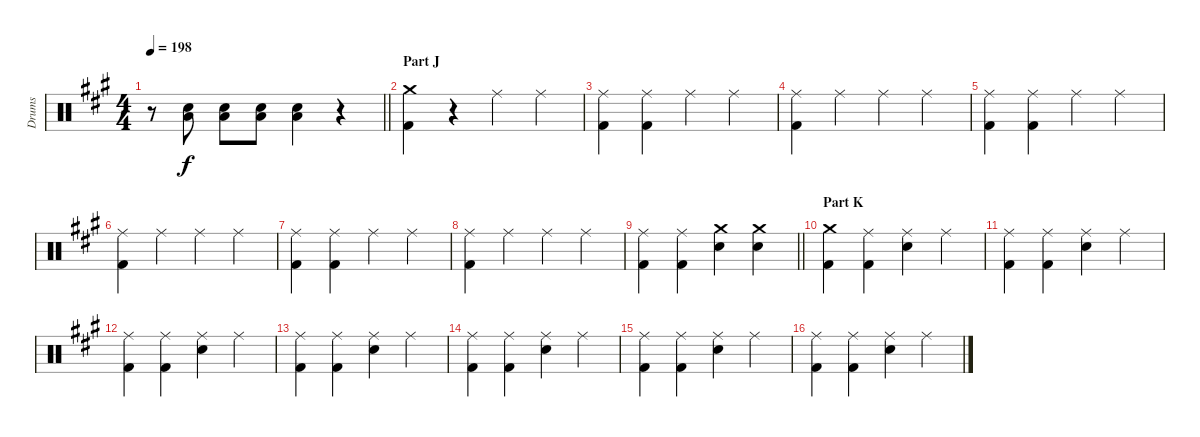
\track ("Drums" "Drums") {instrument percussion}
\staff {score}
\articulation defaults
\ts (4 4)
\tempo 198
\clef neutral
\barLineRight lightlight
\ks a
r.8{dy f} ("Electric Snare (hit)" "Low Floor Tom (hit)").8 ("Electric Snare (hit)" "Low Floor Tom (hit)").8 ("Electric Snare (hit)" "Low Floor Tom (hit)").8 ("Electric Snare (hit)" "Low Floor Tom (hit)").4 r.4 |
\section ("" "Part J")
("Crash medium (hit)" "Kick (hit) 2").4 r.4 "Ride (middle)".4 "Ride (middle)".4 |
("Ride (middle)" "Kick (hit) 2").4 ("Ride (middle)" "Kick (hit) 2").4 "Ride (middle)".4 "Ride (middle)".4 |
("Ride (middle)" "Kick (hit) 2").4 "Ride (middle)".4 "Ride (middle)".4 "Ride (middle)".4 |
("Ride (middle)" "Kick (hit) 2").4 ("Ride (middle)" "Kick (hit) 2").4 "Ride (middle)".4 "Ride (middle)".4 |
("Ride (middle)" "Kick (hit) 2").4 "Ride (middle)".4 "Ride (middle)".4 "Ride (middle)".4 |
("Ride (middle)" "Kick (hit) 2").4 ("Ride (middle)" "Kick (hit) 2").4 "Ride (middle)".4 "Ride (middle)".4 |
("Ride (middle)" "Kick (hit) 2").4 "Ride (middle)".4 "Ride (middle)".4 "Ride (middle)".4 |
\barLineRight lightlight
("Ride (middle)" "Kick (hit) 2").4 ("Ride (middle)" "Kick (hit) 2").4 ("Crash medium (hit)" "Electric Snare (hit)").4 ("Crash medium (hit)" "Electric Snare (hit)").4 |
\section ("" "Part K")
("Crash medium (hit)" "Kick (hit) 2").4 ("Ride (middle)" "Kick (hit) 2").4 ("Ride (middle)" "Electric Snare (hit)").4 "Ride (middle)".4 |
("Ride (middle)" "Kick (hit) 2").4 ("Ride (middle)" "Kick (hit) 2").4 ("Ride (middle)" "Electric Snare (hit)").4 "Ride (middle)".4 |
("Ride (middle)" "Kick (hit) 2").4 ("Ride (middle)" "Kick (hit) 2").4 ("Ride (middle)" "Electric Snare (hit)").4 "Ride (middle)".4 |
("Ride (middle)" "Kick (hit) 2").4 ("Ride (middle)" "Kick (hit) 2").4 ("Ride (middle)" "Electric Snare (hit)").4 "Ride (middle)".4 |
("Ride (middle)" "Kick (hit) 2").4 ("Ride (middle)" "Kick (hit) 2").4 ("Ride (middle)" "Electric Snare (hit)").4 "Ride (middle)".4 |
("Ride (middle)" "Kick (hit) 2").4 ("Ride (middle)" "Kick (hit) 2").4 ("Ride (middle)" "Electric Snare (hit)").4 "Ride (middle)".4 |
("Ride (middle)" "Kick (hit) 2").4 ("Ride (middle)" "Kick (hit) 2").4 ("Ride (middle)" "Electric Snare (hit)").4 "Ride (middle)".4
